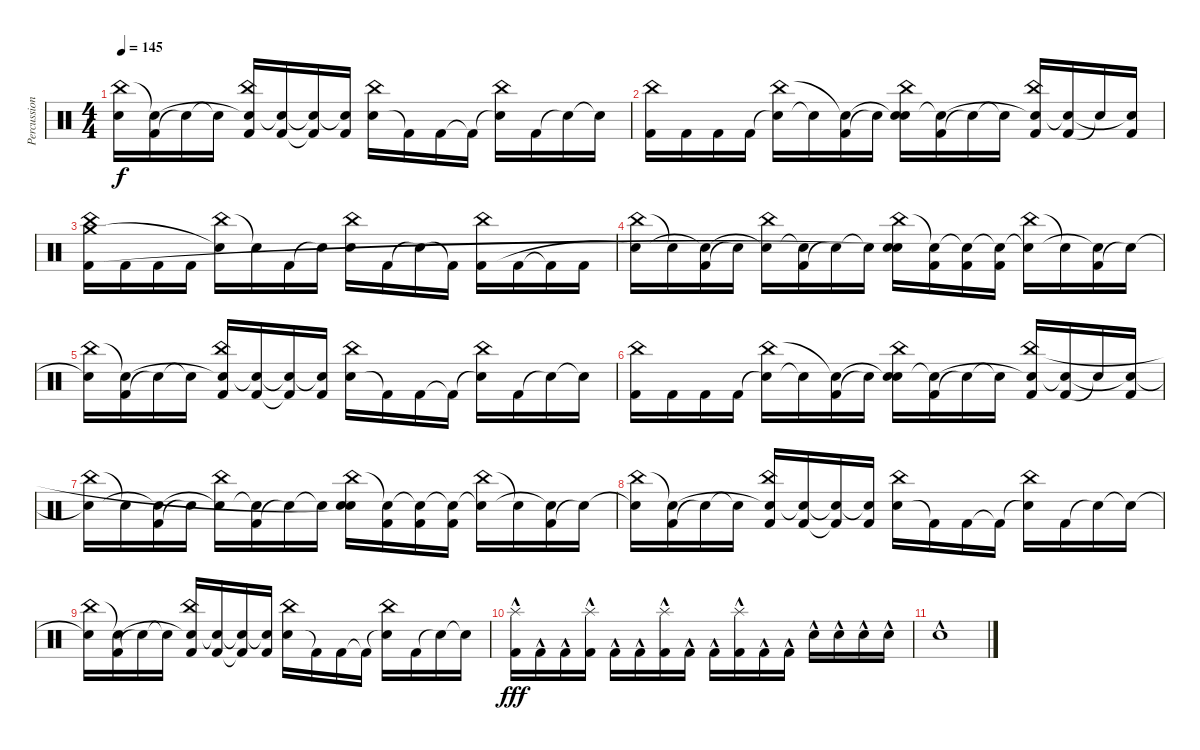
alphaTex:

\track ("Percussion" "Percussion") {instrument percussion}
\staff {score}
\articulation defaults
\ts (4 4)
\tempo 145
\clef neutral
\ks c
("Snare (hit)"{t} "China (hit)").16{dy f} ("Kick (hit) 2" "Snare (hit)"{t}).16 "Snare (hit)"{t}.16 "Snare (hit)"{t}.16 ("Kick (hit) 2" "Snare (hit)"{t} "China (hit)").16 ("Kick (hit) 2" "Snare (hit)"{t}).16 ("Kick (hit) 2"{t} "Snare (hit)"{t}).16 ("Kick (hit) 2" "Snare (hit)"{t}).16 ("Snare (hit) 2" "China (hit)").16 "Kick (hit) 2"{t}.16 "Kick (hit) 2".16 "Kick (hit) 2"{t}.16 ("Snare (hit)"{t} "China (hit)").16 "Kick (hit) 2".16 "Snare (hit)"{t}.16 "Snare (hit)"{t}.16 |
("Kick (hit) 2" "China (hit)").16 "Kick (hit) 2".16 "Kick (hit) 2".16 "Kick (hit) 2".16 ("Snare (hit)"{t} "China (hit)").16 "Snare (hit)"{t}.16 ("Kick (hit) 2" "Snare (hit)"{t}).16 "Snare (hit)"{t}.16 ("Snare (hit) 2" "Snare (hit)"{t} "China (hit)").16 ("Kick (hit) 2" "Snare (hit)"{t}).16 "Snare (hit)"{t}.16 "Snare (hit)"{t}.16 ("Kick (hit) 2" "Snare (hit)"{t} "China (hit)").16 ("Kick (hit) 2" "Snare (hit)"{t}).16 "Snare (hit)"{t}.16 ("Kick (hit) 2" "Snare (hit)"{t}).16 |
("China (hit)" "Crash medium (hit)" "Kick (hit) 2").16 "Kick (hit) 2".16 "Kick (hit) 2".16 "Kick (hit) 2".16 ("China (hit)" "Snare (hit)"{t}).16 "Snare (hit)"{t}.16 "Kick (hit) 2".16 "Snare (hit)"{t}.16 ("China (hit)" "Snare (hit) 2").16 "Kick (hit) 2".16 "Snare (hit)"{t}.16 "Kick (hit) 2"{t}.16 ("China (hit)" "Kick (hit) 2").16 "Kick (hit) 2".16 "Kick (hit) 2"{t}.16 "Kick (hit) 2".16 |
("China (hit)" "Snare (hit)"{t}).16 "Snare (hit)"{t}.16 ("Kick (hit) 2" "Snare (hit)"{t}).16 "Snare (hit)"{t}.16 ("China (hit)" "Snare (hit)"{t}).16 ("Kick (hit) 2" "Snare (hit)"{t}).16 "Snare (hit)"{t}.16 "Snare (hit)"{t}.16 ("Snare (hit) 2" "China (hit)" "Snare (hit)"{t}).16 ("Kick (hit) 2" "Snare (hit)"{t}).16 ("Kick (hit) 2" "Snare (hit)"{t}).16 ("Kick (hit) 2" "Snare (hit)"{t}).16 ("China (hit)" "Snare (hit)"{t}).16 "Snare (hit)"{t}.16 ("Kick (hit) 2" "Snare (hit)"{t}).16 "Snare (hit)"{t}.16 |
("Snare (hit)"{t} "China (hit)").16 ("Kick (hit) 2" "Snare (hit)"{t}).16 "Snare (hit)"{t}.16 "Snare (hit)"{t}.16 ("Kick (hit) 2" "Snare (hit)"{t} "China (hit)").16 ("Kick (hit) 2" "Snare (hit)"{t}).16 ("Kick (hit) 2"{t} "Snare (hit)"{t}).16 ("Kick (hit) 2" "Snare (hit)"{t}).16 ("Snare (hit) 2" "China (hit)").16 "Kick (hit) 2"{t}.16 "Kick (hit) 2".16 "Kick (hit) 2"{t}.16 ("Snare (hit)"{t} "China (hit)").16 "Kick (hit) 2".16 "Snare (hit)"{t}.16 "Snare (hit)"{t}.16 |
("Kick (hit) 2" "China (hit)").16 "Kick (hit) 2".16 "Kick (hit) 2".16 "Kick (hit) 2".16 ("Snare (hit)"{t} "China (hit)").16 "Snare (hit)"{t}.16 ("Kick (hit) 2" "Snare (hit)"{t}).16 "Snare (hit)"{t}.16 ("Snare (hit) 2" "Snare (hit)"{t} "China (hit)").16 ("Kick (hit) 2" "Snare (hit)"{t}).16 "Snare (hit)"{t}.16 "Snare (hit)"{t}.16 ("Kick (hit) 2" "Snare (hit)"{t} "China (hit)").16 ("Kick (hit) 2" "Snare (hit)"{t}).16 "Snare (hit)"{t}.16 ("Kick (hit) 2" "Snare (hit)"{t}).16 |
("China (hit)" "Snare (hit)"{t}).16 "Snare (hit)"{t}.16 ("Kick (hit) 2" "Snare (hit)"{t}).16 "Snare (hit)"{t}.16 ("China (hit)" "Snare (hit)"{t}).16 ("Kick (hit) 2" "Snare (hit)"{t}).16 "Snare (hit)"{t}.16 "Snare (hit)"{t}.16 ("Snare (hit) 2" "China (hit)" "Snare (hit)"{t}).16 ("Kick (hit) 2" "Snare (hit)"{t}).16 ("Kick (hit) 2" "Snare (hit)"{t}).16 ("Kick (hit) 2" "Snare (hit)"{t}).16 ("China (hit)" "Snare (hit)"{t}).16 "Snare (hit)"{t}.16 ("Kick (hit) 2" "Snare (hit)"{t}).16 "Snare (hit)"{t}.16 |
("Snare (hit)"{t} "China (hit)").16 ("Kick (hit) 2" "Snare (hit)"{t}).16 "Snare (hit)"{t}.16 "Snare (hit)"{t}.16 ("Kick (hit) 2" "Snare (hit)"{t} "China (hit)").16 ("Kick (hit) 2" "Snare (hit)"{t}).16 ("Kick (hit) 2"{t} "Snare (hit)"{t}).16 ("Kick (hit) 2" "Snare (hit)"{t}).16 ("Snare (hit) 2" "China (hit)").16 "Kick (hit) 2"{t}.16 "Kick (hit) 2".16 "Kick (hit) 2"{t}.16 ("Snare (hit)"{t} "China (hit)").16 "Kick (hit) 2".16 "Snare (hit)"{t}.16 "Snare (hit)"{t}.16 |
("Snare (hit)"{t} "China (hit)").16 ("Kick (hit) 2" "Snare (hit)"{t}).16 "Snare (hit)"{t}.16 "Snare (hit)"{t}.16 ("Kick (hit) 2" "Snare (hit)"{t} "China (hit)").16 ("Kick (hit) 2" "Snare (hit)"{t}).16 ("Kick (hit) 2"{t} "Snare (hit)"{t}).16 ("Kick (hit) 2" "Snare (hit)"{t}).16 ("Snare (hit) 2" "China (hit)").16 "Kick (hit) 2"{t}.16 "Kick (hit) 2".16 "Kick (hit) 2"{t}.16 ("Snare (hit)"{t} "China (hit)").16 "Kick (hit) 2".16 "Snare (hit)"{t}.16 "Snare (hit)"{t}.16 |
("Kick (hit) 2"{hac} "Splash (hit)"{hac}).16{dy fff} "Kick (hit) 2"{hac}.16 "Kick (hit) 2"{hac}.16 ("Kick (hit) 2"{hac} "Splash (hit)"{hac}).16 "Kick (hit) 2"{hac}.16 "Kick (hit) 2"{hac}.16 ("Kick (hit) 2"{hac} "Splash (hit)"{hac}).16 "Kick (hit) 2"{hac}.16 "Kick (hit) 2"{hac}.16 ("Kick (hit) 2"{hac} "Splash (hit)"{hac}).16 "Kick (hit) 2"{hac}.16 "Kick (hit) 2"{hac}.16 "Snare (hit) 2"{hac}.16 "Snare (hit) 2"{hac}.16 "Snare (hit) 2"{hac}.16 "Snare (hit) 2"{hac}.16 |
"Snare (hit) 2"{hac}.1
